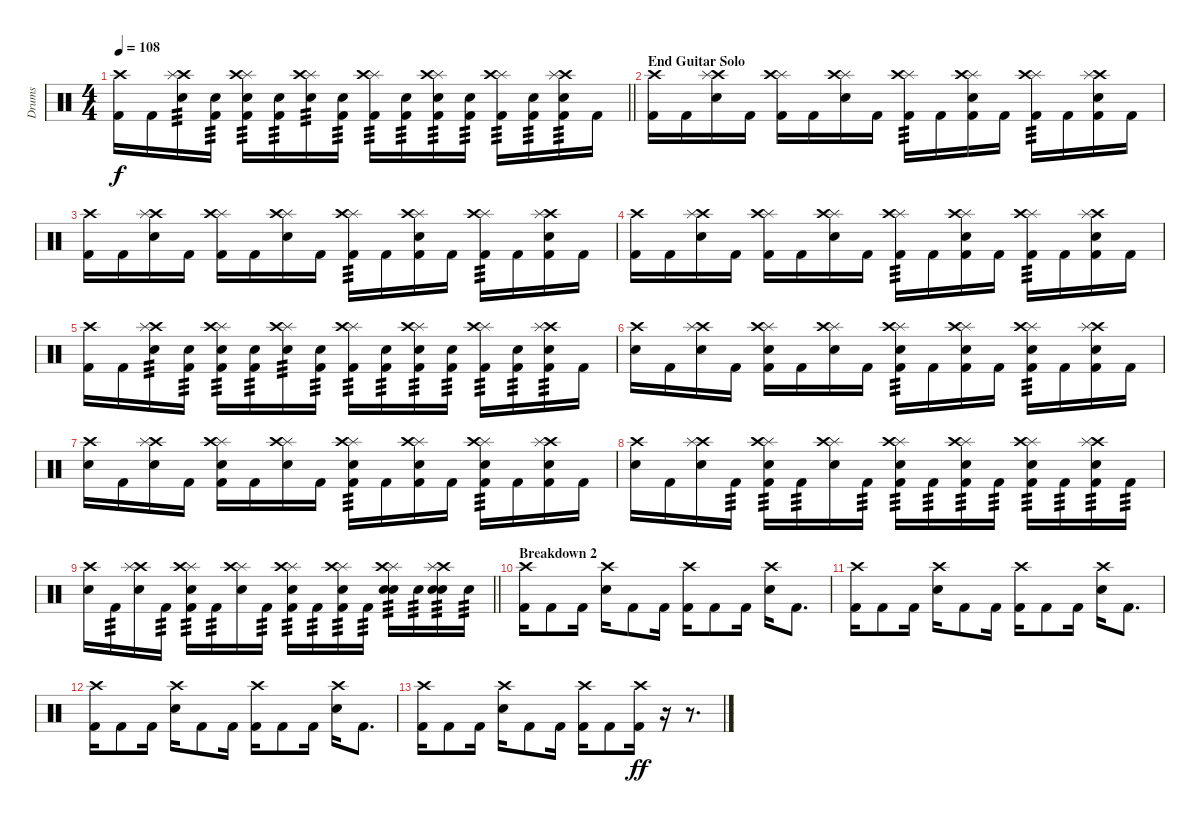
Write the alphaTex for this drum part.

\track ("Drums" "Drums") {instrument percussion}
\staff {score}
\articulation defaults
\ts (4 4)
\tempo 108
\clef neutral
\barLineRight lightlight
\ks c
("Crash high (hit)" "Kick (hit) 2").16{dy f} "Kick (hit) 2".16 ("Crash high (hit)" "Splash (hit)" "Electric Snare (hit)").16{tp 3} ("Electric Snare (hit)" "Kick (hit) 2").16{tp 3} ("Splash (hit)" "Crash high (hit)" "Electric Snare (hit)" "Kick (hit) 2").16{tp 3} ("Electric Snare (hit)" "Kick (hit) 2").16{tp 3} ("Splash (hit)" "Crash high (hit)" "Electric Snare (hit)").16{tp 3} ("Electric Snare (hit)" "Kick (hit) 2").16{tp 3} ("Splash (hit)" "Crash high (hit)" "Kick (hit) 2").16{tp 3} ("Electric Snare (hit)" "Kick (hit) 2").16{tp 3} ("Splash (hit)" "Crash high (hit)" "Electric Snare (hit)" "Kick (hit) 2").16{tp 3} ("Electric Snare (hit)" "Kick (hit) 2").16{tp 3} ("Splash (hit)" "Crash high (hit)" "Kick (hit) 2").16{tp 3} ("Electric Snare (hit)" "Kick (hit) 2").16{tp 3} ("Crash high (hit)" "Splash (hit)" "Electric Snare (hit)" "Kick (hit) 2").16{tp 3} "Kick (hit) 2".16 |
\section ("" "End Guitar Solo")
("Crash high (hit)" "Kick (hit) 2").16 "Kick (hit) 2".16 ("Crash high (hit)" "Splash (hit)" "Electric Snare (hit)").16 "Kick (hit) 2".16 ("Splash (hit)" "Crash high (hit)" "Kick (hit) 2").16 "Kick (hit) 2".16 ("Splash (hit)" "Crash high (hit)" "Electric Snare (hit)").16 "Kick (hit) 2".16 ("Splash (hit)" "Crash high (hit)" "Kick (hit) 2").16{tp 3} "Kick (hit) 2".16 ("Splash (hit)" "Crash high (hit)" "Electric Snare (hit)" "Kick (hit) 2").16 "Kick (hit) 2".16 ("Splash (hit)" "Crash high (hit)" "Kick (hit) 2").16{tp 3} "Kick (hit) 2".16 ("Crash high (hit)" "Splash (hit)" "Electric Snare (hit)" "Kick (hit) 2").16 "Kick (hit) 2".16 |
("Crash high (hit)" "Kick (hit) 2").16 "Kick (hit) 2".16 ("Crash high (hit)" "Splash (hit)" "Electric Snare (hit)").16 "Kick (hit) 2".16 ("Splash (hit)" "Crash high (hit)" "Kick (hit) 2").16 "Kick (hit) 2".16 ("Splash (hit)" "Crash high (hit)" "Electric Snare (hit)").16 "Kick (hit) 2".16 ("Splash (hit)" "Crash high (hit)" "Kick (hit) 2").16{tp 3} "Kick (hit) 2".16 ("Splash (hit)" "Crash high (hit)" "Electric Snare (hit)" "Kick (hit) 2").16 "Kick (hit) 2".16 ("Splash (hit)" "Crash high (hit)" "Kick (hit) 2").16{tp 3} "Kick (hit) 2".16 ("Crash high (hit)" "Splash (hit)" "Electric Snare (hit)" "Kick (hit) 2").16 "Kick (hit) 2".16 |
("Crash high (hit)" "Kick (hit) 2").16 "Kick (hit) 2".16 ("Crash high (hit)" "Splash (hit)" "Electric Snare (hit)").16 "Kick (hit) 2".16 ("Splash (hit)" "Crash high (hit)" "Kick (hit) 2").16 "Kick (hit) 2".16 ("Splash (hit)" "Crash high (hit)" "Electric Snare (hit)").16 "Kick (hit) 2".16 ("Splash (hit)" "Crash high (hit)" "Kick (hit) 2").16{tp 3} "Kick (hit) 2".16 ("Splash (hit)" "Crash high (hit)" "Electric Snare (hit)" "Kick (hit) 2").16 "Kick (hit) 2".16 ("Splash (hit)" "Crash high (hit)" "Kick (hit) 2").16{tp 3} "Kick (hit) 2".16 ("Crash high (hit)" "Splash (hit)" "Electric Snare (hit)" "Kick (hit) 2").16 "Kick (hit) 2".16 |
("Crash high (hit)" "Kick (hit) 2").16 "Kick (hit) 2".16 ("Crash high (hit)" "Splash (hit)" "Electric Snare (hit)").16{tp 3} ("Electric Snare (hit)" "Kick (hit) 2").16{tp 3} ("Splash (hit)" "Crash high (hit)" "Electric Snare (hit)" "Kick (hit) 2").16{tp 3} ("Electric Snare (hit)" "Kick (hit) 2").16{tp 3} ("Splash (hit)" "Crash high (hit)" "Electric Snare (hit)").16{tp 3} ("Electric Snare (hit)" "Kick (hit) 2").16{tp 3} ("Splash (hit)" "Crash high (hit)" "Kick (hit) 2").16{tp 3} ("Electric Snare (hit)" "Kick (hit) 2").16{tp 3} ("Splash (hit)" "Crash high (hit)" "Electric Snare (hit)" "Kick (hit) 2").16{tp 3} ("Electric Snare (hit)" "Kick (hit) 2").16{tp 3} ("Splash (hit)" "Crash high (hit)" "Kick (hit) 2").16{tp 3} ("Electric Snare (hit)" "Kick (hit) 2").16{tp 3} ("Crash high (hit)" "Splash (hit)" "Electric Snare (hit)" "Kick (hit) 2").16{tp 3} "Kick (hit) 2".16 |
("Crash high (hit)" "Electric Snare (hit)").16 "Kick (hit) 2".16 ("Crash high (hit)" "Splash (hit)" "Electric Snare (hit)").16 "Kick (hit) 2".16 ("Splash (hit)" "Crash high (hit)" "Electric Snare (hit)" "Kick (hit) 2").16 "Kick (hit) 2".16 ("Splash (hit)" "Crash high (hit)" "Electric Snare (hit)").16 "Kick (hit) 2".16 ("Splash (hit)" "Crash high (hit)" "Electric Snare (hit)" "Kick (hit) 2").16{tp 3} "Kick (hit) 2".16 ("Splash (hit)" "Crash high (hit)" "Electric Snare (hit)" "Kick (hit) 2").16 "Kick (hit) 2".16 ("Splash (hit)" "Crash high (hit)" "Electric Snare (hit)" "Kick (hit) 2").16{tp 3} "Kick (hit) 2".16 ("Crash high (hit)" "Splash (hit)" "Electric Snare (hit)" "Kick (hit) 2").16 "Kick (hit) 2".16 |
("Crash high (hit)" "Electric Snare (hit)").16 "Kick (hit) 2".16 ("Crash high (hit)" "Splash (hit)" "Electric Snare (hit)").16 "Kick (hit) 2".16 ("Splash (hit)" "Crash high (hit)" "Electric Snare (hit)" "Kick (hit) 2").16 "Kick (hit) 2".16 ("Splash (hit)" "Crash high (hit)" "Electric Snare (hit)").16 "Kick (hit) 2".16 ("Splash (hit)" "Crash high (hit)" "Electric Snare (hit)" "Kick (hit) 2").16{tp 3} "Kick (hit) 2".16 ("Splash (hit)" "Crash high (hit)" "Electric Snare (hit)" "Kick (hit) 2").16 "Kick (hit) 2".16 ("Splash (hit)" "Crash high (hit)" "Electric Snare (hit)" "Kick (hit) 2").16{tp 3} "Kick (hit) 2".16 ("Crash high (hit)" "Splash (hit)" "Electric Snare (hit)" "Kick (hit) 2").16 "Kick (hit) 2".16 |
("Crash high (hit)" "Electric Snare (hit)").16 "Kick (hit) 2".16 ("Crash high (hit)" "Splash (hit)" "Electric Snare (hit)").16 "Kick (hit) 2".16{tp 3} ("Splash (hit)" "Crash high (hit)" "Electric Snare (hit)" "Kick (hit) 2").16{tp 3} "Kick (hit) 2".16{tp 3} ("Splash (hit)" "Crash high (hit)" "Electric Snare (hit)").16 "Kick (hit) 2".16{tp 3} ("Splash (hit)" "Crash high (hit)" "Electric Snare (hit)" "Kick (hit) 2").16{tp 3} "Kick (hit) 2".16{tp 3} ("Splash (hit)" "Crash high (hit)" "Electric Snare (hit)" "Kick (hit) 2").16{tp 3} "Kick (hit) 2".16{tp 3} ("Splash (hit)" "Crash high (hit)" "Electric Snare (hit)" "Kick (hit) 2").16{tp 3} "Kick (hit) 2".16{tp 3} ("Crash high (hit)" "Splash (hit)" "Electric Snare (hit)" "Kick (hit) 2").16{tp 3} "Kick (hit) 2".16{tp 3} |
\barLineRight lightlight
("Crash high (hit)" "Electric Snare (hit)").16 "Kick (hit) 2".16{tp 3} ("Crash high (hit)" "Splash (hit)" "Electric Snare (hit)").16 "Kick (hit) 2".16{tp 3} ("Splash (hit)" "Crash high (hit)" "Electric Snare (hit)" "Kick (hit) 2").16{tp 3} "Kick (hit) 2".16{tp 3} ("Splash (hit)" "Crash high (hit)" "Electric Snare (hit)").16 "Kick (hit) 2".16{tp 3} ("Splash (hit)" "Crash high (hit)" "Electric Snare (hit)" "Kick (hit) 2").16{tp 3} "Kick (hit) 2".16{tp 3} ("Splash (hit)" "Crash high (hit)" "Electric Snare (hit)" "Kick (hit) 2").16{tp 3} "Kick (hit) 2".16{tp 3} ("Splash (hit)" "Crash high (hit)" "Electric Snare (hit)" "Electric Snare (hit)").16{tp 3} "Electric Snare (hit)".16{tp 3} ("Crash high (hit)" "Splash (hit)" "Electric Snare (hit)" "Electric Snare (hit)").16{tp 3} "Electric Snare (hit)".16{tp 3} |
\section ("" "Breakdown 2")
("Crash high (hit)" "Kick (hit) 2").16 "Kick (hit) 2".8 "Kick (hit) 2".16 ("Crash high (hit)" "Electric Snare (hit)").16 "Kick (hit) 2".8 "Kick (hit) 2".16 ("Crash high (hit)" "Kick (hit) 2").16 "Kick (hit) 2".8 "Kick (hit) 2".16 ("Electric Snare (hit)" "Crash high (hit)").16 "Kick (hit) 2".8{d} |
("Crash high (hit)" "Kick (hit) 2").16 "Kick (hit) 2".8 "Kick (hit) 2".16 ("Crash high (hit)" "Electric Snare (hit)").16 "Kick (hit) 2".8 "Kick (hit) 2".16 ("Crash high (hit)" "Kick (hit) 2").16 "Kick (hit) 2".8 "Kick (hit) 2".16 ("Electric Snare (hit)" "Crash high (hit)").16 "Kick (hit) 2".8{d} |
("Crash high (hit)" "Kick (hit) 2").16 "Kick (hit) 2".8 "Kick (hit) 2".16 ("Crash high (hit)" "Electric Snare (hit)").16 "Kick (hit) 2".8 "Kick (hit) 2".16 ("Crash high (hit)" "Kick (hit) 2").16 "Kick (hit) 2".8 "Kick (hit) 2".16 ("Electric Snare (hit)" "Crash high (hit)").16 "Kick (hit) 2".8{d} |
("Crash high (hit)" "Kick (hit) 2").16 "Kick (hit) 2".8 "Kick (hit) 2".16 ("Crash high (hit)" "Electric Snare (hit)").16 "Kick (hit) 2".8 "Kick (hit) 2".16 ("Crash high (hit)" "Kick (hit) 2").16 "Kick (hit) 2".8 ("Crash high (hit)" "Kick (hit) 2").16{dy ff} r.16 r.8{d}
